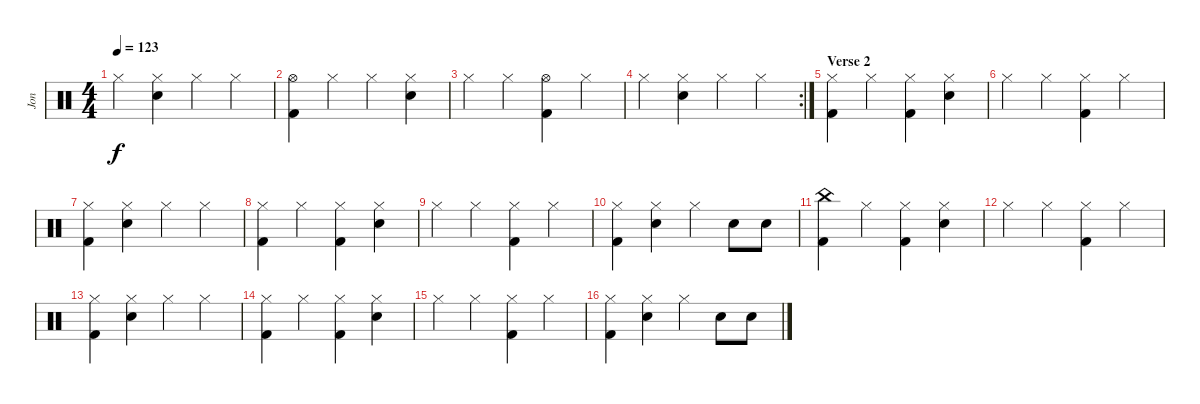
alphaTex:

\track ("Jon" "Jon") {instrument percussion}
\staff {score}
\articulation defaults
\ts (4 4)
\tempo 123
\clef neutral
\ks c "Hi-Hat (closed)".4{dy f}
("Hi-Hat (closed)" "Snare (hit) 2").4 "Hi-Hat (closed)".4 "Hi-Hat (closed)".4 |
("Hi-Hat (open)" "Kick (hit) 2").4 "Hi-Hat (closed)".4 "Hi-Hat (closed)".4 ("Hi-Hat (closed)" "Snare (hit) 2").4 |
"Hi-Hat (closed)".4 "Hi-Hat (closed)".4 ("Hi-Hat (open)" "Kick (hit) 2").4 "Hi-Hat (closed)".4 |
\rc 2 "Hi-Hat (closed)".4
("Hi-Hat (closed)" "Snare (hit) 2").4 "Hi-Hat (closed)".4 "Hi-Hat (closed)".4 |
\section ("" "Verse 2")
("Hi-Hat (closed)" "Kick (hit) 2").4 "Hi-Hat (closed)".4 ("Hi-Hat (closed)" "Kick (hit) 2").4 ("Hi-Hat (closed)" "Snare (hit) 2").4 |
"Hi-Hat (closed)".4 "Hi-Hat (closed)".4 ("Hi-Hat (closed)" "Kick (hit) 2").4 "Hi-Hat (closed)".4 |
("Hi-Hat (closed)" "Kick (hit) 2").4 ("Hi-Hat (closed)" "Snare (hit) 2").4 "Hi-Hat (closed)".4 "Hi-Hat (closed)".4 |
("Hi-Hat (closed)" "Kick (hit) 2").4 "Hi-Hat (closed)".4 ("Hi-Hat (closed)" "Kick (hit) 2").4 ("Hi-Hat (closed)" "Snare (hit) 2").4 |
"Hi-Hat (closed)".4 "Hi-Hat (closed)".4 ("Hi-Hat (closed)" "Kick (hit) 2").4 "Hi-Hat (closed)".4 |
("Hi-Hat (closed)" "Kick (hit) 2").4 ("Hi-Hat (closed)" "Snare (hit) 2").4 "Hi-Hat (closed)".4 "Snare (hit) 2".8 "Snare (hit) 2".8 |
("China (hit)" "Kick (hit) 2").4 "Hi-Hat (closed)".4 ("Hi-Hat (closed)" "Kick (hit) 2").4 ("Hi-Hat (closed)" "Snare (hit) 2").4 |
"Hi-Hat (closed)".4 "Hi-Hat (closed)".4 ("Hi-Hat (closed)" "Kick (hit) 2").4 "Hi-Hat (closed)".4 |
("Hi-Hat (closed)" "Kick (hit) 2").4 ("Hi-Hat (closed)" "Snare (hit) 2").4 "Hi-Hat (closed)".4 "Hi-Hat (closed)".4 |
("Hi-Hat (closed)" "Kick (hit) 2").4 "Hi-Hat (closed)".4 ("Hi-Hat (closed)" "Kick (hit) 2").4 ("Hi-Hat (closed)" "Snare (hit) 2").4 |
"Hi-Hat (closed)".4 "Hi-Hat (closed)".4 ("Hi-Hat (closed)" "Kick (hit) 2").4 "Hi-Hat (closed)".4 |
("Hi-Hat (closed)" "Kick (hit) 2").4 ("Hi-Hat (closed)" "Snare (hit) 2").4 "Hi-Hat (closed)".4 "Snare (hit) 2".8 "Snare (hit) 2".8
